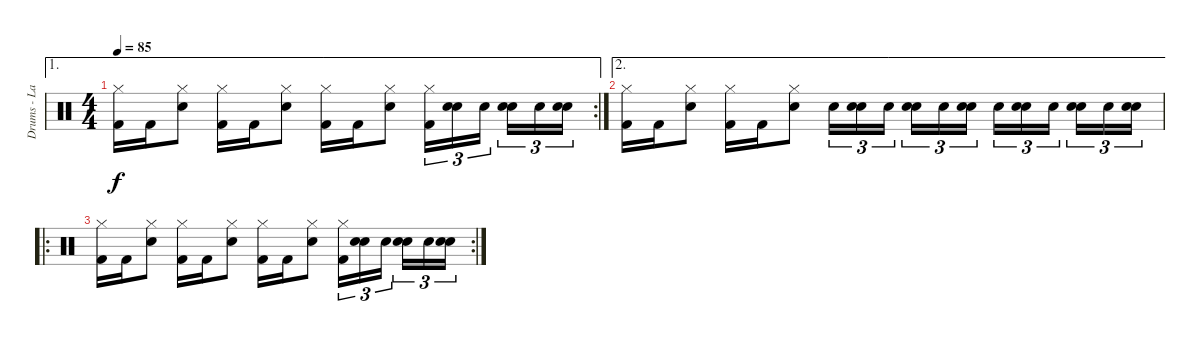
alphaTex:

\track ("Drums - Larzon" "Drums - La") {instrument percussion}
\staff {score}
\articulation defaults
\ae 1
\rc 2
\ts (4 4)
\tempo 85
\clef neutral
\ks c
("Hi-Hat (closed)" "Kick (hit) 2").16{dy f} "Kick (hit) 2".16 ("Hi-Hat (closed)" "Snare (hit) 2").8 ("Hi-Hat (closed)" "Kick (hit) 2").16 "Kick (hit) 2".16 ("Hi-Hat (closed)" "Snare (hit) 2").8 ("Hi-Hat (closed)" "Kick (hit) 2").16 "Kick (hit) 2".16 ("Hi-Hat (closed)" "Snare (hit) 2").8 ("Hi-Hat (closed)" "Kick (hit) 2").16{tu (3 2)} ("Snare (hit) 2" "Snare (hit) 2").16{tu (3 2)} "Snare (hit) 2".16{tu (3 2)} ("Snare (hit) 2" "Snare (hit) 2").16{tu (3 2)} "Snare (hit) 2".16{tu (3 2)} ("Snare (hit) 2" "Snare (hit) 2").16{tu (3 2)} |
\ae 2
("Hi-Hat (closed)" "Kick (hit) 2").16 "Kick (hit) 2".16 ("Hi-Hat (closed)" "Snare (hit) 2").8 ("Hi-Hat (closed)" "Kick (hit) 2").16 "Kick (hit) 2".16 ("Hi-Hat (closed)" "Snare (hit) 2").8 "Snare (hit) 2".16{tu (3 2)} ("Snare (hit) 2" "Snare (hit) 2").16{tu (3 2)} "Snare (hit) 2".16{tu (3 2)} ("Snare (hit) 2" "Snare (hit) 2").16{tu (3 2)} "Snare (hit) 2".16{tu (3 2)} ("Snare (hit) 2" "Snare (hit) 2").16{tu (3 2)} "Snare (hit) 2".16{tu (3 2)} ("Snare (hit) 2" "Snare (hit) 2").16{tu (3 2)} "Snare (hit) 2".16{tu (3 2)} ("Snare (hit) 2" "Snare (hit) 2").16{tu (3 2)} "Snare (hit) 2".16{tu (3 2)} ("Snare (hit) 2" "Snare (hit) 2").16{tu (3 2)} |
\ro
\rc 2
("Hi-Hat (closed)" "Kick (hit) 2").16 "Kick (hit) 2".16 ("Hi-Hat (closed)" "Snare (hit) 2").8 ("Hi-Hat (closed)" "Kick (hit) 2").16 "Kick (hit) 2".16 ("Hi-Hat (closed)" "Snare (hit) 2").8 ("Hi-Hat (closed)" "Kick (hit) 2").16 "Kick (hit) 2".16 ("Hi-Hat (closed)" "Snare (hit) 2").8 ("Hi-Hat (closed)" "Kick (hit) 2").16{tu (3 2)} ("Snare (hit) 2" "Snare (hit) 2").16{tu (3 2)} "Snare (hit) 2".16{tu (3 2)} ("Snare (hit) 2" "Snare (hit) 2").16{tu (3 2)} "Snare (hit) 2".16{tu (3 2)} ("Snare (hit) 2" "Snare (hit) 2").16{tu (3 2)}
